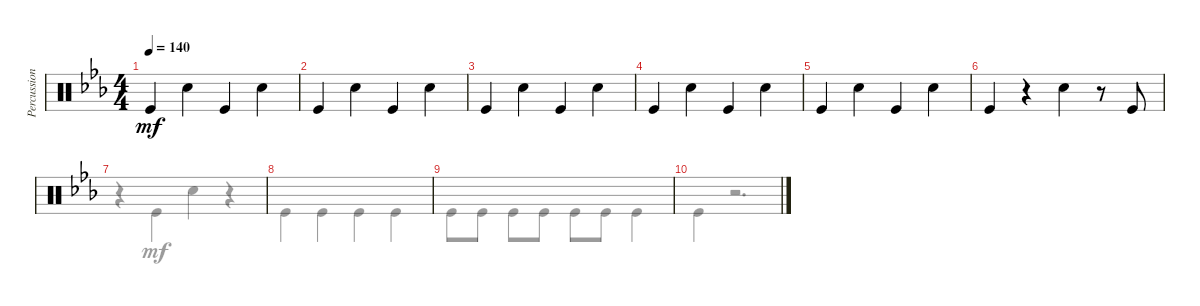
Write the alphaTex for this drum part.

\track ("Percussions" "Percussion") {instrument percussion}
\staff {score}
\articulation defaults
\voice
\ts (4 4)
\tempo 140
\clef neutral
\ks cminor "Kick (hit)".4{dy mf} "Snare (hit) 2".4 "Kick (hit)".4 "Snare (hit) 2".4
|
"Kick (hit)".4 "Snare (hit) 2".4 "Kick (hit)".4 "Snare (hit) 2".4 |
"Kick (hit)".4 "Snare (hit) 2".4 "Kick (hit)".4 "Snare (hit) 2".4 |
"Kick (hit)".4 "Snare (hit) 2".4 "Kick (hit)".4 "Snare (hit) 2".4 |
"Kick (hit)".4 "Snare (hit) 2".4 "Kick (hit)".4 "Snare (hit) 2".4 |
"Kick (hit)".4 r.4 "Snare (hit) 2".4 r.8 "Kick (hit)".8 |
|
|
|
\voice
\clef neutral
\ottava regular
\simile none
\ks cminor
|
|
|
|
|
|
r.4 "Kick (hit)".4 "Snare (hit) 2".4 r.4 |
"Kick (hit)".4 "Kick (hit)".4 "Kick (hit)".4 "Kick (hit)".4 |
"Kick (hit)".8 "Kick (hit)".8 "Kick (hit)".8 "Kick (hit)".8 "Kick (hit)".8 "Kick (hit)".8 "Kick (hit)".4 |
"Kick (hit)".4 r.2{d}
